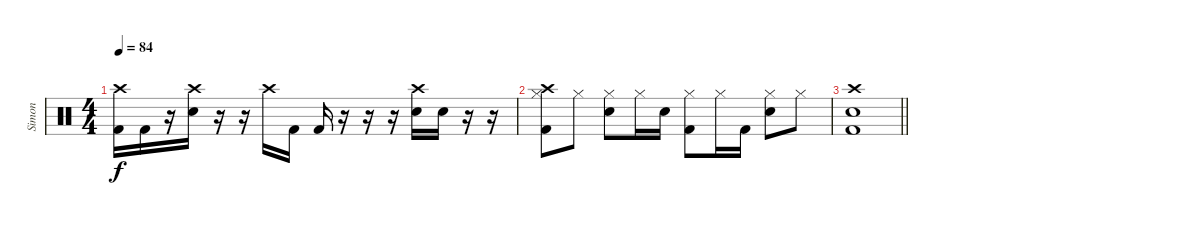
\track ("Simon" "Simon") {instrument percussion}
\staff {score}
\articulation defaults
\ts (4 4)
\tempo 84
\clef neutral
\ks c
("Kick (hit) 2" "Crash high (hit)").16{dy f} "Kick (hit) 2".16 r.16 ("Snare (hit) 2" "Crash high (hit)").16 r.16 r.16 "Crash high (hit)".16 "Kick (hit) 2".16 "Kick (hit) 2".16 r.16 r.16 r.16 ("Snare (hit) 2" "Crash high (hit)").16 "Snare (hit) 2".16 r.16 r.16 |
("Crash high (hit)" "Hi-Hat (closed)" "Kick (hit) 2").8 "Hi-Hat (closed)".8 ("Hi-Hat (closed)" "Snare (hit) 2").8 "Hi-Hat (closed)".16 "Snare (hit) 2".16 ("Hi-Hat (closed)" "Kick (hit) 2").8 "Hi-Hat (closed)".16 "Kick (hit) 2".16 ("Hi-Hat (closed)" "Snare (hit) 2").8 "Hi-Hat (closed)".8 |
\barLineRight lightlight
("Crash high (hit)" "Kick (hit) 2" "Snare (hit) 2").1
